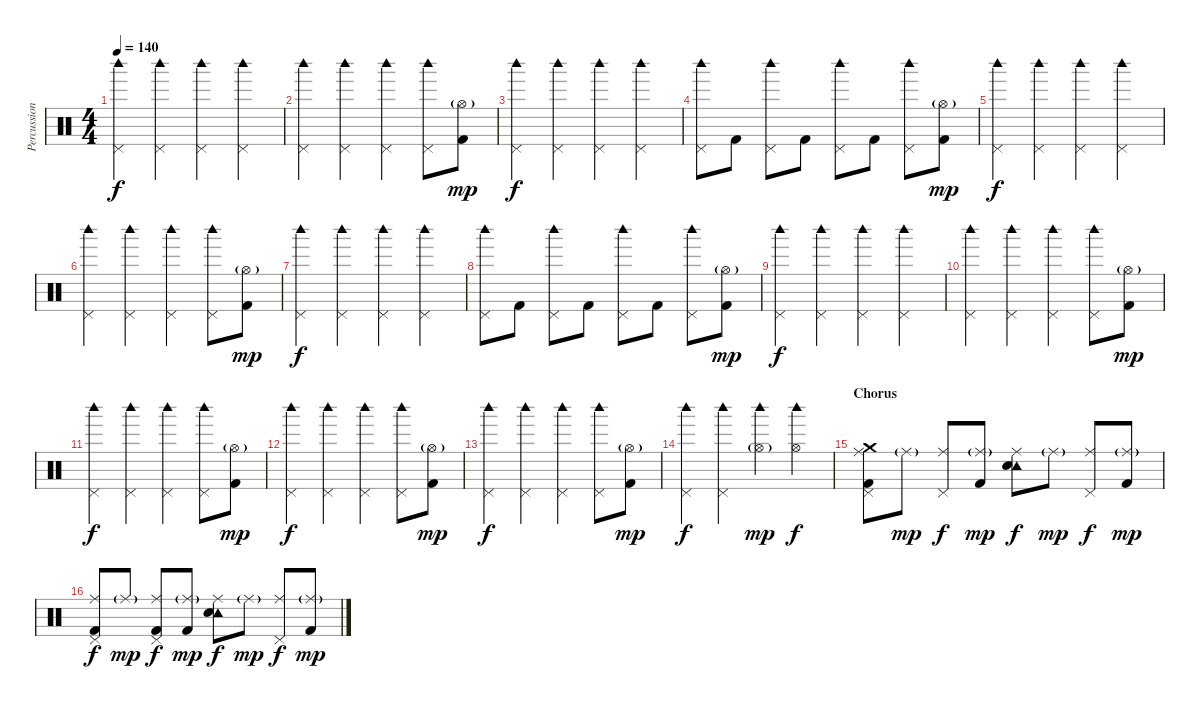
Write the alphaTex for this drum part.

\track ("Percussion" "Percussion") {instrument percussion}
\staff {score}
\articulation defaults
\ts (4 4)
\tempo 140
\clef neutral
\ks c
("Pedal Hi-Hat (hit)" "Woodblock high (hit)").4{dy f} ("Pedal Hi-Hat (hit)" "Woodblock high (hit)").4 ("Pedal Hi-Hat (hit)" "Woodblock high (hit)").4 ("Pedal Hi-Hat (hit)" "Woodblock high (hit)").4 |
("Pedal Hi-Hat (hit)" "Woodblock high (hit)").4 ("Pedal Hi-Hat (hit)" "Woodblock high (hit)").4 ("Pedal Hi-Hat (hit)" "Woodblock high (hit)").4 ("Pedal Hi-Hat (hit)" "Woodblock high (hit)").8 ("Hi-Hat (open)"{g} "Kick (hit) 2").8{dy mp} |
("Pedal Hi-Hat (hit)" "Woodblock high (hit)").4{dy f} ("Pedal Hi-Hat (hit)" "Woodblock high (hit)").4 ("Pedal Hi-Hat (hit)" "Woodblock high (hit)").4 ("Pedal Hi-Hat (hit)" "Woodblock high (hit)").4 |
("Pedal Hi-Hat (hit)" "Woodblock high (hit)").8 "Kick (hit) 2".8 ("Pedal Hi-Hat (hit)" "Woodblock high (hit)").8 "Kick (hit) 2".8 ("Pedal Hi-Hat (hit)" "Woodblock high (hit)").8 "Kick (hit) 2".8 ("Pedal Hi-Hat (hit)" "Woodblock high (hit)").8 ("Hi-Hat (open)"{g} "Kick (hit) 2").8{dy mp} |
("Pedal Hi-Hat (hit)" "Woodblock high (hit)").4{dy f} ("Pedal Hi-Hat (hit)" "Woodblock high (hit)").4 ("Pedal Hi-Hat (hit)" "Woodblock high (hit)").4 ("Pedal Hi-Hat (hit)" "Woodblock high (hit)").4 |
("Pedal Hi-Hat (hit)" "Woodblock high (hit)").4 ("Pedal Hi-Hat (hit)" "Woodblock high (hit)").4 ("Pedal Hi-Hat (hit)" "Woodblock high (hit)").4 ("Pedal Hi-Hat (hit)" "Woodblock high (hit)").8 ("Hi-Hat (open)"{g} "Kick (hit) 2").8{dy mp} |
("Pedal Hi-Hat (hit)" "Woodblock high (hit)").4{dy f} ("Pedal Hi-Hat (hit)" "Woodblock high (hit)").4 ("Pedal Hi-Hat (hit)" "Woodblock high (hit)").4 ("Pedal Hi-Hat (hit)" "Woodblock high (hit)").4 |
("Pedal Hi-Hat (hit)" "Woodblock high (hit)").8 "Kick (hit) 2".8 ("Pedal Hi-Hat (hit)" "Woodblock high (hit)").8 "Kick (hit) 2".8 ("Pedal Hi-Hat (hit)" "Woodblock high (hit)").8 "Kick (hit) 2".8 ("Pedal Hi-Hat (hit)" "Woodblock high (hit)").8 ("Hi-Hat (open)"{g} "Kick (hit) 2").8{dy mp} |
("Pedal Hi-Hat (hit)" "Woodblock high (hit)").4{dy f} ("Pedal Hi-Hat (hit)" "Woodblock high (hit)").4 ("Pedal Hi-Hat (hit)" "Woodblock high (hit)").4 ("Pedal Hi-Hat (hit)" "Woodblock high (hit)").4 |
("Pedal Hi-Hat (hit)" "Woodblock high (hit)").4 ("Pedal Hi-Hat (hit)" "Woodblock high (hit)").4 ("Pedal Hi-Hat (hit)" "Woodblock high (hit)").4 ("Pedal Hi-Hat (hit)" "Woodblock high (hit)").8 ("Hi-Hat (open)"{g} "Kick (hit) 2").8{dy mp} |
("Pedal Hi-Hat (hit)" "Woodblock high (hit)").4{dy f} ("Pedal Hi-Hat (hit)" "Woodblock high (hit)").4 ("Pedal Hi-Hat (hit)" "Woodblock high (hit)").4 ("Pedal Hi-Hat (hit)" "Woodblock high (hit)").8 ("Hi-Hat (open)"{g} "Kick (hit) 2").8{dy mp} |
("Pedal Hi-Hat (hit)" "Woodblock high (hit)").4{dy f} ("Pedal Hi-Hat (hit)" "Woodblock high (hit)").4 ("Pedal Hi-Hat (hit)" "Woodblock high (hit)").4 ("Pedal Hi-Hat (hit)" "Woodblock high (hit)").8 ("Hi-Hat (open)"{g} "Kick (hit) 2").8{dy mp} |
("Pedal Hi-Hat (hit)" "Woodblock high (hit)").4{dy f} ("Pedal Hi-Hat (hit)" "Woodblock high (hit)").4 ("Pedal Hi-Hat (hit)" "Woodblock high (hit)").4 ("Pedal Hi-Hat (hit)" "Woodblock high (hit)").8 ("Hi-Hat (open)"{g} "Kick (hit) 2").8{dy mp} |
("Pedal Hi-Hat (hit)" "Woodblock high (hit)").4{dy f} ("Pedal Hi-Hat (hit)" "Woodblock high (hit)").4 ("Hi-Hat (open)"{g} "Woodblock high (hit)").4{dy mp} ("Hi-Hat (open)" "Woodblock high (hit)").4{dy f} |
\section ("" "Chorus")
("Ride (middle)" "Pedal Hi-Hat (hit)" "Crash medium (hit)" "Kick (hit) 2").8 "Ride (middle)"{g}.8{dy mp} ("Ride (middle)" "Pedal Hi-Hat (hit)").8{dy f} ("Ride (middle)"{g} "Kick (hit) 2").8{dy mp} ("Ride (middle)" "Tambourine (hit)" "Electric Snare (hit)").8{dy f} "Ride (middle)"{g}.8{dy mp} ("Ride (middle)" "Pedal Hi-Hat (hit)").8{dy f} ("Ride (middle)"{g} "Kick (hit) 2").8{dy mp} |
("Ride (middle)" "Pedal Hi-Hat (hit)" "Kick (hit) 2").8{dy f} "Ride (middle)"{g}.8{dy mp} ("Ride (middle)" "Pedal Hi-Hat (hit)" "Kick (hit) 2").8{dy f} ("Ride (middle)"{g} "Kick (hit) 2").8{dy mp} ("Ride (middle)" "Tambourine (hit)" "Electric Snare (hit)").8{dy f} "Ride (middle)"{g}.8{dy mp} ("Ride (middle)" "Pedal Hi-Hat (hit)").8{dy f} ("Ride (middle)"{g} "Kick (hit) 2").8{dy mp}
